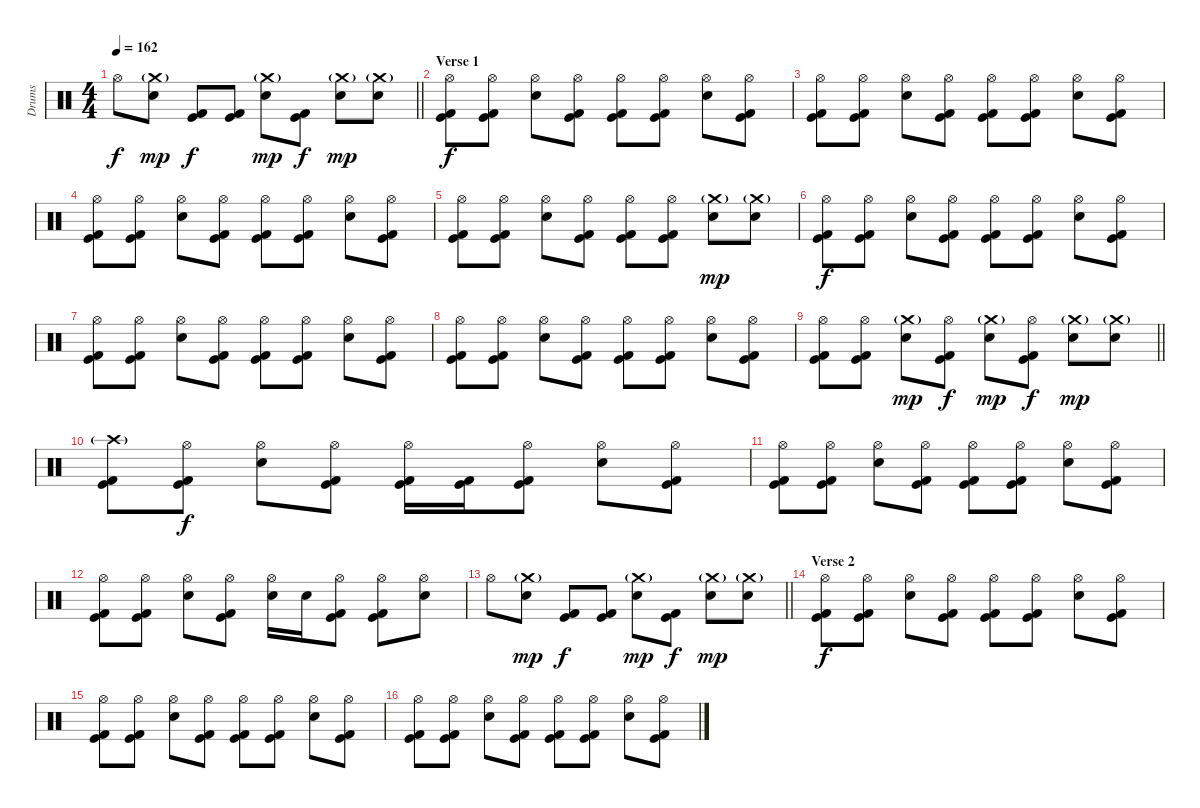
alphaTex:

\track ("Drums" "Drums") {instrument percussion}
\staff {score}
\articulation defaults
\ts (4 4)
\tempo 162
\clef neutral
\barLineRight lightlight
\ks c "Hi-Hat (open)".8{dy f}
("Crash medium (hit)"{g} "Electric Snare (hit)").8{dy mp} ("Kick (hit)" "Kick (hit) 2").8{dy f} ("Kick (hit)" "Kick (hit) 2").8 ("Crash medium (hit)"{g} "Electric Snare (hit)").8{dy mp} ("Kick (hit)" "Kick (hit) 2").8{dy f} ("Crash medium (hit)"{g} "Electric Snare (hit)").8{dy mp} ("Crash medium (hit)"{g} "Electric Snare (hit)").8 |
\section ("" "Verse 1")
("Hi-Hat (open)" "Kick (hit)" "Kick (hit) 2").8{dy f} ("Hi-Hat (open)" "Kick (hit)" "Kick (hit) 2").8 ("Hi-Hat (open)" "Electric Snare (hit)").8 ("Hi-Hat (open)" "Kick (hit)" "Kick (hit) 2").8 ("Hi-Hat (open)" "Kick (hit)" "Kick (hit) 2").8 ("Hi-Hat (open)" "Kick (hit)" "Kick (hit) 2").8 ("Hi-Hat (open)" "Electric Snare (hit)").8 ("Hi-Hat (open)" "Kick (hit)" "Kick (hit) 2").8 |
("Hi-Hat (open)" "Kick (hit)" "Kick (hit) 2").8 ("Hi-Hat (open)" "Kick (hit)" "Kick (hit) 2").8 ("Hi-Hat (open)" "Electric Snare (hit)").8 ("Hi-Hat (open)" "Kick (hit)" "Kick (hit) 2").8 ("Hi-Hat (open)" "Kick (hit)" "Kick (hit) 2").8 ("Hi-Hat (open)" "Kick (hit)" "Kick (hit) 2").8 ("Hi-Hat (open)" "Electric Snare (hit)").8 ("Hi-Hat (open)" "Kick (hit)" "Kick (hit) 2").8 |
("Hi-Hat (open)" "Kick (hit)" "Kick (hit) 2").8 ("Hi-Hat (open)" "Kick (hit)" "Kick (hit) 2").8 ("Hi-Hat (open)" "Electric Snare (hit)").8 ("Hi-Hat (open)" "Kick (hit)" "Kick (hit) 2").8 ("Hi-Hat (open)" "Kick (hit)" "Kick (hit) 2").8 ("Hi-Hat (open)" "Kick (hit)" "Kick (hit) 2").8 ("Hi-Hat (open)" "Electric Snare (hit)").8 ("Hi-Hat (open)" "Kick (hit)" "Kick (hit) 2").8 |
("Hi-Hat (open)" "Kick (hit)" "Kick (hit) 2").8 ("Hi-Hat (open)" "Kick (hit)" "Kick (hit) 2").8 ("Hi-Hat (open)" "Electric Snare (hit)").8 ("Hi-Hat (open)" "Kick (hit)" "Kick (hit) 2").8 ("Hi-Hat (open)" "Kick (hit)" "Kick (hit) 2").8 ("Hi-Hat (open)" "Kick (hit)" "Kick (hit) 2").8 ("Crash medium (hit)"{g} "Electric Snare (hit)").8{dy mp} ("Crash medium (hit)"{g} "Electric Snare (hit)").8 |
("Hi-Hat (open)" "Kick (hit)" "Kick (hit) 2").8{dy f} ("Hi-Hat (open)" "Kick (hit)" "Kick (hit) 2").8 ("Hi-Hat (open)" "Electric Snare (hit)").8 ("Hi-Hat (open)" "Kick (hit)" "Kick (hit) 2").8 ("Hi-Hat (open)" "Kick (hit)" "Kick (hit) 2").8 ("Hi-Hat (open)" "Kick (hit)" "Kick (hit) 2").8 ("Hi-Hat (open)" "Electric Snare (hit)").8 ("Hi-Hat (open)" "Kick (hit)" "Kick (hit) 2").8 |
("Hi-Hat (open)" "Kick (hit)" "Kick (hit) 2").8 ("Hi-Hat (open)" "Kick (hit)" "Kick (hit) 2").8 ("Hi-Hat (open)" "Electric Snare (hit)").8 ("Hi-Hat (open)" "Kick (hit)" "Kick (hit) 2").8 ("Hi-Hat (open)" "Kick (hit)" "Kick (hit) 2").8 ("Hi-Hat (open)" "Kick (hit)" "Kick (hit) 2").8 ("Hi-Hat (open)" "Electric Snare (hit)").8 ("Hi-Hat (open)" "Kick (hit)" "Kick (hit) 2").8 |
("Hi-Hat (open)" "Kick (hit)" "Kick (hit) 2").8 ("Hi-Hat (open)" "Kick (hit)" "Kick (hit) 2").8 ("Hi-Hat (open)" "Electric Snare (hit)").8 ("Hi-Hat (open)" "Kick (hit)" "Kick (hit) 2").8 ("Hi-Hat (open)" "Kick (hit)" "Kick (hit) 2").8 ("Hi-Hat (open)" "Kick (hit)" "Kick (hit) 2").8 ("Hi-Hat (open)" "Electric Snare (hit)").8 ("Hi-Hat (open)" "Kick (hit)" "Kick (hit) 2").8 |
\barLineRight lightlight
("Hi-Hat (open)" "Kick (hit)" "Kick (hit) 2").8 ("Hi-Hat (open)" "Kick (hit)" "Kick (hit) 2").8 ("Crash medium (hit)"{g} "Electric Snare (hit)").8{dy mp} ("Hi-Hat (open)" "Kick (hit)" "Kick (hit) 2").8{dy f} ("Crash medium (hit)"{g} "Electric Snare (hit)").8{dy mp} ("Hi-Hat (open)" "Kick (hit)" "Kick (hit) 2").8{dy f} ("Crash medium (hit)"{g} "Electric Snare (hit)").8{dy mp} ("Crash medium (hit)"{g} "Electric Snare (hit)").8 |
\section ("" "")
("Crash high (hit)"{g} "Kick (hit)" "Kick (hit) 2").8 ("Hi-Hat (open)" "Kick (hit)" "Kick (hit) 2").8{dy f} ("Hi-Hat (open)" "Electric Snare (hit)").8 ("Hi-Hat (open)" "Kick (hit)" "Kick (hit) 2").8 ("Hi-Hat (open)" "Kick (hit)" "Kick (hit) 2").16 ("Kick (hit)" "Kick (hit) 2").16 ("Hi-Hat (open)" "Kick (hit)" "Kick (hit) 2").8 ("Hi-Hat (open)" "Electric Snare (hit)").8 ("Hi-Hat (open)" "Kick (hit)" "Kick (hit) 2").8 |
("Hi-Hat (open)" "Kick (hit)" "Kick (hit) 2").8 ("Hi-Hat (open)" "Kick (hit)" "Kick (hit) 2").8 ("Hi-Hat (open)" "Electric Snare (hit)").8 ("Hi-Hat (open)" "Kick (hit)" "Kick (hit) 2").8 ("Hi-Hat (open)" "Kick (hit)" "Kick (hit) 2").8 ("Hi-Hat (open)" "Kick (hit)" "Kick (hit) 2").8 ("Hi-Hat (open)" "Electric Snare (hit)").8 ("Hi-Hat (open)" "Kick (hit)" "Kick (hit) 2").8 |
("Hi-Hat (open)" "Kick (hit)" "Kick (hit) 2").8 ("Hi-Hat (open)" "Kick (hit)" "Kick (hit) 2").8 ("Hi-Hat (open)" "Electric Snare (hit)").8 ("Hi-Hat (open)" "Kick (hit)" "Kick (hit) 2").8 ("Hi-Hat (open)" "Electric Snare (hit)").16 "Electric Snare (hit)".16 ("Hi-Hat (open)" "Kick (hit)" "Kick (hit) 2").8 ("Hi-Hat (open)" "Kick (hit)" "Kick (hit) 2").8 ("Hi-Hat (open)" "Electric Snare (hit)").8 |
\barLineRight lightlight "Hi-Hat (open)".8
("Crash medium (hit)"{g} "Electric Snare (hit)").8{dy mp} ("Kick (hit)" "Kick (hit) 2").8{dy f} ("Kick (hit)" "Kick (hit) 2").8 ("Crash medium (hit)"{g} "Electric Snare (hit)").8{dy mp} ("Kick (hit)" "Kick (hit) 2").8{dy f} ("Crash medium (hit)"{g} "Electric Snare (hit)").8{dy mp} ("Crash medium (hit)"{g} "Electric Snare (hit)").8 |
\section ("" "Verse 2")
("Hi-Hat (open)" "Kick (hit)" "Kick (hit) 2").8{dy f} ("Hi-Hat (open)" "Kick (hit)" "Kick (hit) 2").8 ("Hi-Hat (open)" "Electric Snare (hit)").8 ("Hi-Hat (open)" "Kick (hit)" "Kick (hit) 2").8 ("Hi-Hat (open)" "Kick (hit)" "Kick (hit) 2").8 ("Hi-Hat (open)" "Kick (hit)" "Kick (hit) 2").8 ("Hi-Hat (open)" "Electric Snare (hit)").8 ("Hi-Hat (open)" "Kick (hit)" "Kick (hit) 2").8 |
("Hi-Hat (open)" "Kick (hit)" "Kick (hit) 2").8 ("Hi-Hat (open)" "Kick (hit)" "Kick (hit) 2").8 ("Hi-Hat (open)" "Electric Snare (hit)").8 ("Hi-Hat (open)" "Kick (hit)" "Kick (hit) 2").8 ("Hi-Hat (open)" "Kick (hit)" "Kick (hit) 2").8 ("Hi-Hat (open)" "Kick (hit)" "Kick (hit) 2").8 ("Hi-Hat (open)" "Electric Snare (hit)").8 ("Hi-Hat (open)" "Kick (hit)" "Kick (hit) 2").8 |
("Hi-Hat (open)" "Kick (hit)" "Kick (hit) 2").8 ("Hi-Hat (open)" "Kick (hit)" "Kick (hit) 2").8 ("Hi-Hat (open)" "Electric Snare (hit)").8 ("Hi-Hat (open)" "Kick (hit)" "Kick (hit) 2").8 ("Hi-Hat (open)" "Kick (hit)" "Kick (hit) 2").8 ("Hi-Hat (open)" "Kick (hit)" "Kick (hit) 2").8 ("Hi-Hat (open)" "Electric Snare (hit)").8 ("Hi-Hat (open)" "Kick (hit)" "Kick (hit) 2").8
